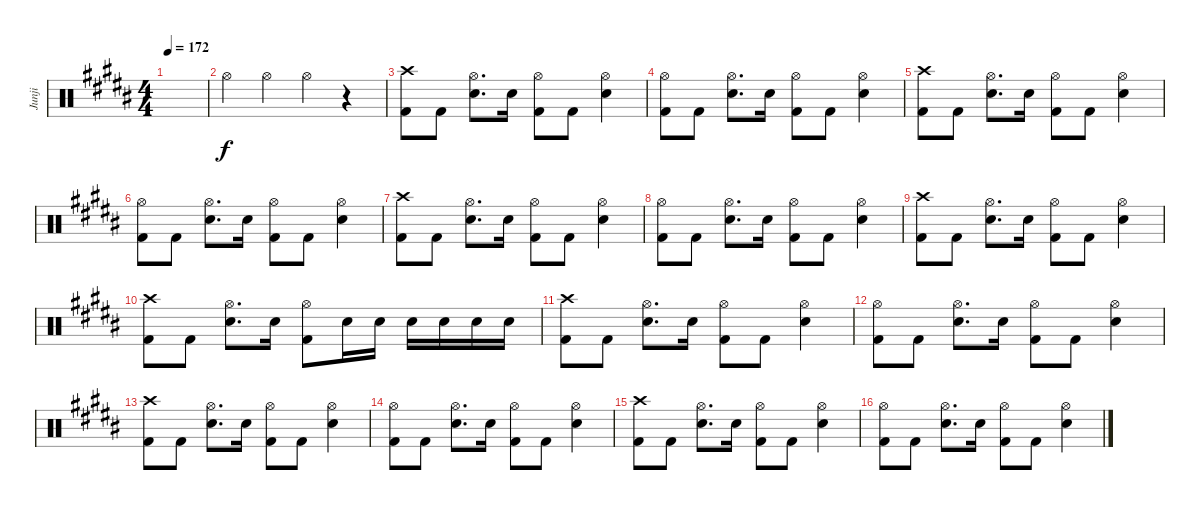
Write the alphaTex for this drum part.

\track ("Junji" "Junji") {instrument percussion}
\staff {score}
\articulation defaults
\ts (4 4)
\tempo 172
\clef neutral
\ks b
|
"Hi-Hat (open)".4 "Hi-Hat (open)".4 "Hi-Hat (open)".4 r.4 |
("Crash high (hit)" "Kick (hit) 2").8 "Kick (hit) 2".8 ("Hi-Hat (open)" "Snare (hit) 2").8{d} "Snare (hit) 2".16 ("Hi-Hat (open)" "Kick (hit) 2").8 "Kick (hit) 2".8 ("Hi-Hat (open)" "Snare (hit) 2").4 |
("Hi-Hat (open)" "Kick (hit) 2").8 "Kick (hit) 2".8 ("Hi-Hat (open)" "Snare (hit) 2").8{d} "Snare (hit) 2".16 ("Hi-Hat (open)" "Kick (hit) 2").8 "Kick (hit) 2".8 ("Hi-Hat (open)" "Snare (hit) 2").4 |
("Crash high (hit)" "Kick (hit) 2").8 "Kick (hit) 2".8 ("Hi-Hat (open)" "Snare (hit) 2").8{d} "Snare (hit) 2".16 ("Hi-Hat (open)" "Kick (hit) 2").8 "Kick (hit) 2".8 ("Hi-Hat (open)" "Snare (hit) 2").4 |
("Hi-Hat (open)" "Kick (hit) 2").8 "Kick (hit) 2".8 ("Hi-Hat (open)" "Snare (hit) 2").8{d} "Snare (hit) 2".16 ("Hi-Hat (open)" "Kick (hit) 2").8 "Kick (hit) 2".8 ("Hi-Hat (open)" "Snare (hit) 2").4 |
("Crash high (hit)" "Kick (hit) 2").8 "Kick (hit) 2".8 ("Hi-Hat (open)" "Snare (hit) 2").8{d} "Snare (hit) 2".16 ("Hi-Hat (open)" "Kick (hit) 2").8 "Kick (hit) 2".8 ("Hi-Hat (open)" "Snare (hit) 2").4 |
("Hi-Hat (open)" "Kick (hit) 2").8 "Kick (hit) 2".8 ("Hi-Hat (open)" "Snare (hit) 2").8{d} "Snare (hit) 2".16 ("Hi-Hat (open)" "Kick (hit) 2").8 "Kick (hit) 2".8 ("Hi-Hat (open)" "Snare (hit) 2").4 |
("Crash high (hit)" "Kick (hit) 2").8 "Kick (hit) 2".8 ("Hi-Hat (open)" "Snare (hit) 2").8{d} "Snare (hit) 2".16 ("Hi-Hat (open)" "Kick (hit) 2").8 "Kick (hit) 2".8 ("Hi-Hat (open)" "Snare (hit) 2").4 |
("Crash high (hit)" "Kick (hit) 2").8 "Kick (hit) 2".8 ("Hi-Hat (open)" "Snare (hit) 2").8{d} "Snare (hit) 2".16 ("Hi-Hat (open)" "Kick (hit) 2").8 "Snare (hit) 2".16 "Snare (hit) 2".16 "Snare (hit) 2".16 "Snare (hit) 2".16 "Snare (hit) 2".16 "Snare (hit) 2".16 |
("Crash high (hit)" "Kick (hit) 2").8 "Kick (hit) 2".8 ("Hi-Hat (open)" "Snare (hit) 2").8{d} "Snare (hit) 2".16 ("Hi-Hat (open)" "Kick (hit) 2").8 "Kick (hit) 2".8 ("Hi-Hat (open)" "Snare (hit) 2").4 |
("Hi-Hat (open)" "Kick (hit) 2").8 "Kick (hit) 2".8 ("Hi-Hat (open)" "Snare (hit) 2").8{d} "Snare (hit) 2".16 ("Hi-Hat (open)" "Kick (hit) 2").8 "Kick (hit) 2".8 ("Hi-Hat (open)" "Snare (hit) 2").4 |
("Crash high (hit)" "Kick (hit) 2").8 "Kick (hit) 2".8 ("Hi-Hat (open)" "Snare (hit) 2").8{d} "Snare (hit) 2".16 ("Hi-Hat (open)" "Kick (hit) 2").8 "Kick (hit) 2".8 ("Hi-Hat (open)" "Snare (hit) 2").4 |
("Hi-Hat (open)" "Kick (hit) 2").8 "Kick (hit) 2".8 ("Hi-Hat (open)" "Snare (hit) 2").8{d} "Snare (hit) 2".16 ("Hi-Hat (open)" "Kick (hit) 2").8 "Kick (hit) 2".8 ("Hi-Hat (open)" "Snare (hit) 2").4 |
("Crash high (hit)" "Kick (hit) 2").8 "Kick (hit) 2".8 ("Hi-Hat (open)" "Snare (hit) 2").8{d} "Snare (hit) 2".16 ("Hi-Hat (open)" "Kick (hit) 2").8 "Kick (hit) 2".8 ("Hi-Hat (open)" "Snare (hit) 2").4 |
("Hi-Hat (open)" "Kick (hit) 2").8 "Kick (hit) 2".8 ("Hi-Hat (open)" "Snare (hit) 2").8{d} "Snare (hit) 2".16 ("Hi-Hat (open)" "Kick (hit) 2").8 "Kick (hit) 2".8 ("Hi-Hat (open)" "Snare (hit) 2").4
